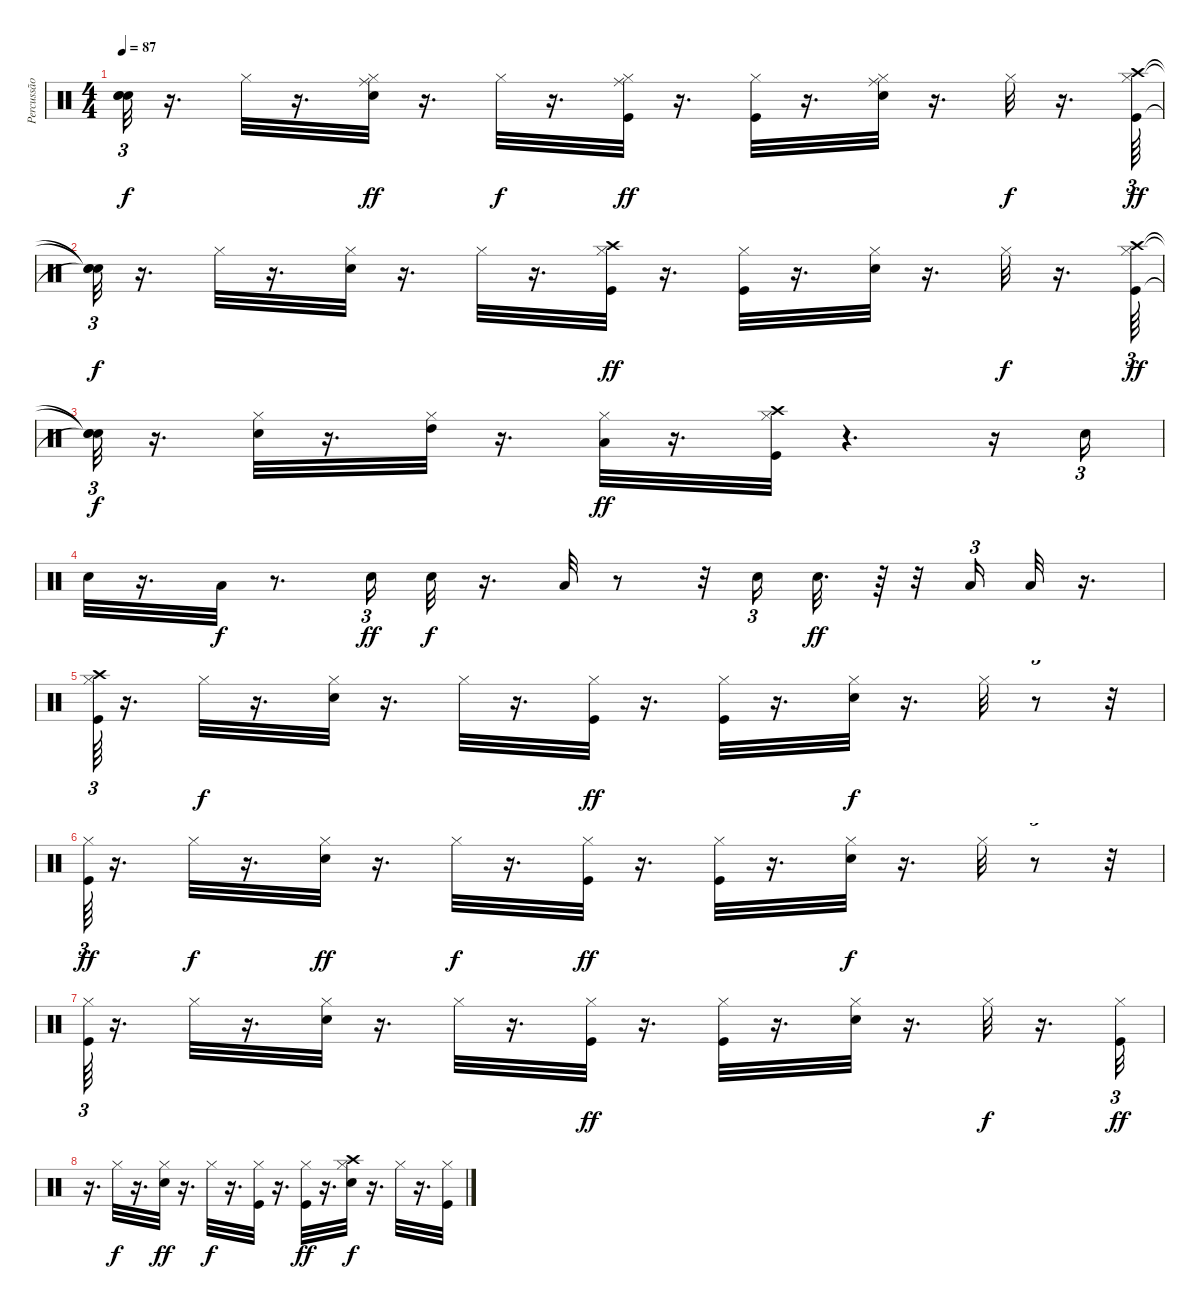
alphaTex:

\track ("Percussão" "Percussão") {instrument percussion}
\staff {score}
\articulation defaults
\ts (4 4)
\tempo 87
\clef neutral
\ks c
("Snare (hit)"{t} "Snare (hit)"{t} "Snare (hit)"{t}).32{tu (3 2) dy f} r.16{d} "Hi-Hat (closed)".32 r.16{d} ("Electric Snare (hit)" "Hi-Hat (closed)" "Ride (middle)").32{dy ff} r.16{d} "Hi-Hat (closed)".32{dy f} r.16{d} ("Kick (hit)" "Hi-Hat (closed)" "Ride (middle)").32{dy ff} r.16{d} ("Kick (hit)" "Hi-Hat (closed)").32 r.16{d} ("Electric Snare (hit)" "Hi-Hat (closed)" "Ride (middle)").32 r.16{d} "Hi-Hat (closed)".32{dy f} r.16{d} ("Kick (hit)" "Hi-Hat (closed)" "Crash high (hit)").64{tu (3 2) dy ff} |
("Snare (hit)"{t} "Snare (hit)"{t} "Snare (hit)"{t}).32{tu (3 2) dy f} r.16{d} "Hi-Hat (closed)".32 r.16{d} ("Electric Snare (hit)" "Hi-Hat (closed)").32 r.16{d} "Hi-Hat (closed)".32 r.16{d} ("Kick (hit)" "Hi-Hat (closed)" "Crash high (hit)").32{dy ff} r.16{d} ("Kick (hit)" "Hi-Hat (closed)").32 r.16{d} ("Electric Snare (hit)" "Hi-Hat (closed)").32 r.16{d} "Hi-Hat (closed)".32{dy f} r.16{d} ("Kick (hit)" "Hi-Hat (closed)" "Crash high (hit)").64{tu (3 2) dy ff} |
("Snare (hit)"{t} "Snare (hit)"{t} "Snare (hit)"{t}).32{tu (3 2) dy f} r.16{d} ("Electric Snare (hit)" "Hi-Hat (closed)").32 r.16{d} ("Hi-Hat (closed)" "High Tom (hit)").32 r.16{d} ("Hi-Hat (closed)" "Low Tom (hit)").32{dy ff} r.16{d} ("Kick (hit)" "Hi-Hat (closed)" "Crash high (hit)").32 r.4{d} r.16 "Electric Snare (hit)".16{tu (3 2)} |
"Electric Snare (hit)".32 r.16{d} "Low Tom (hit)".32{dy f} r.8{d} "Electric Snare (hit)".16{tu (3 2) dy ff} "Electric Snare (hit)".32{dy f} r.16{d} "Low Tom (hit)".32 r.8 r.32 "Electric Snare (hit)".16{tu (3 2)} "Electric Snare (hit)".32{d dy ff} r.64 r.32 "Low Tom (hit)".16{tu (3 2)} "Low Tom (hit)".32 r.16{d} |
("Kick (hit)" "Hi-Hat (closed)" "Crash high (hit)").64{tu (3 2)} r.16{d} "Hi-Hat (closed)".32{dy f} r.16{d} ("Electric Snare (hit)" "Hi-Hat (closed)").32 r.16{d} "Hi-Hat (closed)".32 r.16{d} ("Kick (hit)" "Hi-Hat (closed)").32{dy ff} r.16{d} ("Kick (hit)" "Hi-Hat (closed)").32 r.16{d} ("Electric Snare (hit)" "Hi-Hat (closed)").32{dy f} r.16{d} "Hi-Hat (closed)".32 r.8{tu (3 2)} r.32 |
("Kick (hit)" "Hi-Hat (closed)").64{tu (3 2) dy ff} r.16{d} "Hi-Hat (closed)".32{dy f} r.16{d} ("Electric Snare (hit)" "Hi-Hat (closed)").32{dy ff} r.16{d} "Hi-Hat (closed)".32{dy f} r.16{d} ("Kick (hit)" "Hi-Hat (closed)").32{dy ff} r.16{d} ("Kick (hit)" "Hi-Hat (closed)").32 r.16{d} ("Electric Snare (hit)" "Hi-Hat (closed)").32{dy f} r.16{d} "Hi-Hat (closed)".32 r.8{tu (3 2)} r.32 |
("Kick (hit)" "Hi-Hat (closed)").64{tu (3 2)} r.16{d} "Hi-Hat (closed)".32 r.16{d} ("Electric Snare (hit)" "Hi-Hat (closed)").32 r.16{d} "Hi-Hat (closed)".32 r.16{d} ("Kick (hit)" "Hi-Hat (closed)").32{dy ff} r.16{d} ("Kick (hit)" "Hi-Hat (closed)").32 r.16{d} ("Electric Snare (hit)" "Hi-Hat (closed)").32 r.16{d} "Hi-Hat (closed)".32{dy f} r.16{d} ("Kick (hit)" "Hi-Hat (closed)").32{tu (3 2) dy ff} |
r.16{d} "Hi-Hat (closed)".32{dy f} r.16{d} ("Electric Snare (hit)" "Hi-Hat (closed)").32{dy ff} r.16{d} "Hi-Hat (closed)".32{dy f} r.16{d} ("Kick (hit)" "Hi-Hat (closed)").32 r.16{d} ("Kick (hit)" "Hi-Hat (closed)").32{dy ff} r.16{d} ("Electric Snare (hit)" "Hi-Hat (closed)" "Crash high (hit)").32{dy f} r.16{d} "Hi-Hat (closed)".32 r.16{d} ("Kick (hit)" "Hi-Hat (closed)").32
